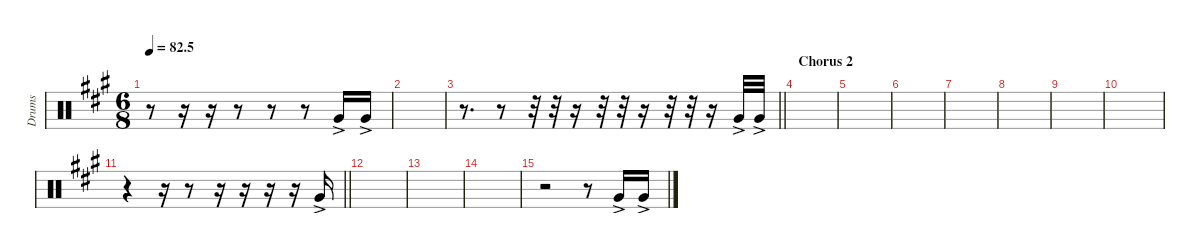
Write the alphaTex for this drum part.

\defaultSystemsLayout 4
\hideDynamics
\bracketExtendMode nobrackets
\otherSystemsTrackNameOrientation horizontal
\track ("Tom 04" "Drums") {instrument percussion}
\staff {score}
\articulation defaults
\ts (6 8)
\tempo
82.5
\accidentals auto
\clef neutral
\ottava regular
\simile none
\scale
0.333333
\ks a
r.8{dy f} r.16 r.16 r.8 r.8 r.8 "Very Low Tom (hit)"{ac acc forcenatural}.16 "Very Low Tom (hit)"{ac acc forcenatural}.16 |
\scale
0.333333 |
\scale
0.333333
\barLineRight lightlight
r.8{d} r.8 r.32 r.32 r.16 r.32 r.32 r.16 r.32 r.32 r.16 "Very Low Tom (hit)"{ac acc forcenatural}.32 "Very Low Tom (hit)"{ac acc forcenatural}.32 |
\section ("" "Chorus 2")
\scale
0.333333 |
\scale
0.333333 |
\scale
0.333333 |
\scale
0.333333 |
\scale
0.333333 |
\scale
0.333333 |
\scale
0.333333 |
\scale
0.333333
\barLineRight lightlight
r.4 r.16 r.8 r.16 r.16 r.16 r.16 "Very Low Tom (hit)"{ac acc forcenatural}.16 |
\scale
0.333333 |
\scale
0.333333 |
\scale
0.333333 |
\scale
0.333333 r.2 r.8 "Very Low Tom (hit)"{ac acc forcenatural}.16 "Very Low Tom (hit)"{ac acc forcenatural}.16 |
\scale
0.333333
